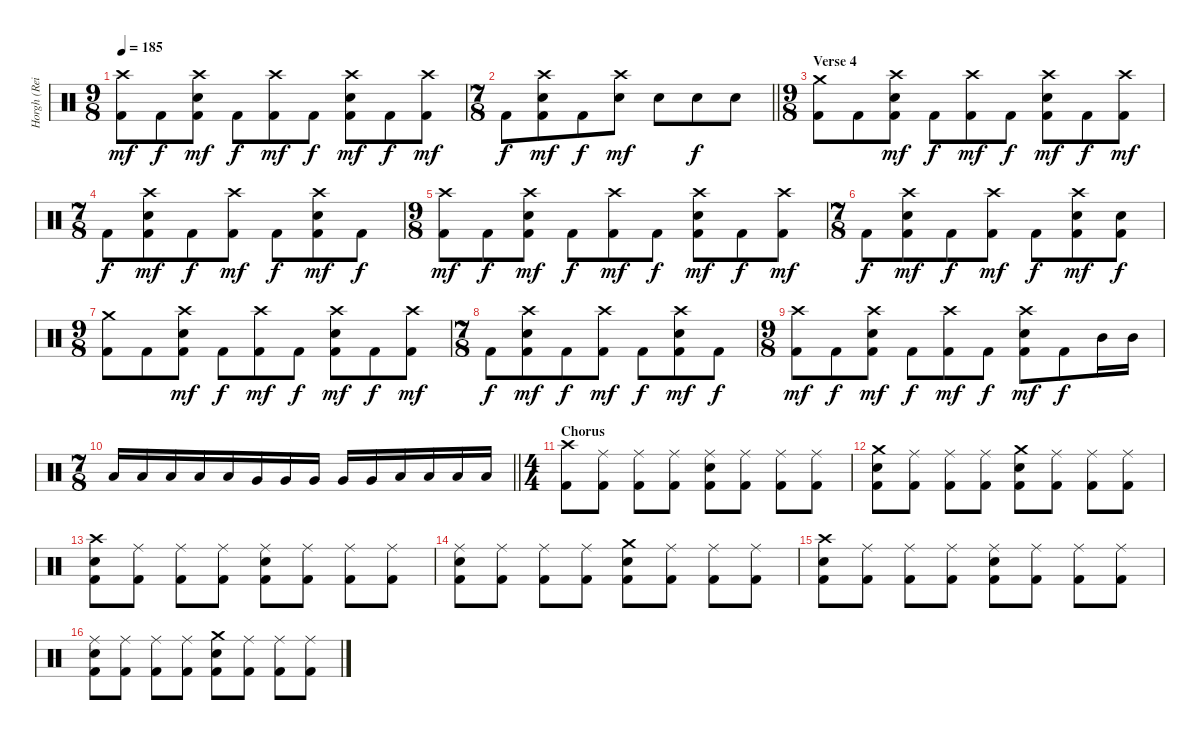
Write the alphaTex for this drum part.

\track ("Horgh (Reidar Horghagen)" "Horgh (Rei") {instrument percussion}
\staff {score}
\articulation defaults
\ts (9 8)
\tempo 185
\clef neutral
\ks c
("Crash high (hit)" "Kick (hit) 2").8{dy mf} "Kick (hit) 2".8{dy f} ("Crash high (hit)" "Snare (hit) 2" "Kick (hit) 2").8{dy mf} "Kick (hit) 2".8{dy f} ("Crash high (hit)" "Kick (hit) 2").8{dy mf} "Kick (hit) 2".8{dy f} ("Crash high (hit)" "Snare (hit) 2" "Kick (hit) 2").8{dy mf} "Kick (hit) 2".8{dy f} ("Crash high (hit)" "Kick (hit) 2").8{dy mf} |
\ts (7 8)
\barLineRight lightlight "Kick (hit) 2".8{dy f}
("Crash high (hit)" "Snare (hit) 2" "Kick (hit) 2").8{dy mf} "Kick (hit) 2".8{dy f} ("Crash high (hit)" "Snare (hit) 2").8{dy mf} "Snare (hit) 2".8 "Snare (hit) 2".8{dy f} "Snare (hit) 2".8 |
\ts (9 8)
\section ("" "Verse 4")
("Crash medium (hit)" "Kick (hit) 2").8 "Kick (hit) 2".8 ("Crash high (hit)" "Snare (hit) 2" "Kick (hit) 2").8{dy mf} "Kick (hit) 2".8{dy f} ("Crash high (hit)" "Kick (hit) 2").8{dy mf} "Kick (hit) 2".8{dy f} ("Crash high (hit)" "Snare (hit) 2" "Kick (hit) 2").8{dy mf} "Kick (hit) 2".8{dy f} ("Crash high (hit)" "Kick (hit) 2").8{dy mf} |
\ts (7 8)
"Kick (hit) 2".8{dy f} ("Crash high (hit)" "Snare (hit) 2" "Kick (hit) 2").8{dy mf} "Kick (hit) 2".8{dy f} ("Crash high (hit)" "Kick (hit) 2").8{dy mf} "Kick (hit) 2".8{dy f} ("Crash high (hit)" "Snare (hit) 2" "Kick (hit) 2").8{dy mf} "Kick (hit) 2".8{dy f} |
\ts (9 8)
("Crash high (hit)" "Kick (hit) 2").8{dy mf} "Kick (hit) 2".8{dy f} ("Crash high (hit)" "Snare (hit) 2" "Kick (hit) 2").8{dy mf} "Kick (hit) 2".8{dy f} ("Crash high (hit)" "Kick (hit) 2").8{dy mf} "Kick (hit) 2".8{dy f} ("Crash high (hit)" "Snare (hit) 2" "Kick (hit) 2").8{dy mf} "Kick (hit) 2".8{dy f} ("Crash high (hit)" "Kick (hit) 2").8{dy mf} |
\ts (7 8)
"Kick (hit) 2".8{dy f} ("Crash high (hit)" "Snare (hit) 2" "Kick (hit) 2").8{dy mf} "Kick (hit) 2".8{dy f} ("Crash high (hit)" "Kick (hit) 2").8{dy mf} "Kick (hit) 2".8{dy f} ("Crash high (hit)" "Snare (hit) 2" "Kick (hit) 2").8{dy mf} ("Snare (hit) 2" "Kick (hit) 2").8{dy f} |
\ts (9 8)
("Crash medium (hit)" "Kick (hit) 2").8 "Kick (hit) 2".8 ("Crash high (hit)" "Snare (hit) 2" "Kick (hit) 2").8{dy mf} "Kick (hit) 2".8{dy f} ("Crash high (hit)" "Kick (hit) 2").8{dy mf} "Kick (hit) 2".8{dy f} ("Crash high (hit)" "Snare (hit) 2" "Kick (hit) 2").8{dy mf} "Kick (hit) 2".8{dy f} ("Crash high (hit)" "Kick (hit) 2").8{dy mf} |
\ts (7 8)
"Kick (hit) 2".8{dy f} ("Crash high (hit)" "Snare (hit) 2" "Kick (hit) 2").8{dy mf} "Kick (hit) 2".8{dy f} ("Crash high (hit)" "Kick (hit) 2").8{dy mf} "Kick (hit) 2".8{dy f} ("Crash high (hit)" "Snare (hit) 2" "Kick (hit) 2").8{dy mf} "Kick (hit) 2".8{dy f} |
\ts (9 8)
("Crash high (hit)" "Kick (hit) 2").8{dy mf} "Kick (hit) 2".8{dy f} ("Crash high (hit)" "Snare (hit) 2" "Kick (hit) 2").8{dy mf} "Kick (hit) 2".8{dy f} ("Crash high (hit)" "Kick (hit) 2").8{dy mf} "Kick (hit) 2".8{dy f} ("Crash high (hit)" "Snare (hit) 2" "Kick (hit) 2").8{dy mf} "Kick (hit) 2".8{dy f} "Mid Tom (hit)".16 "Mid Tom (hit)".16 |
\ts (7 8)
\barLineRight lightlight "Low Tom (hit)".16 "Low Tom (hit)".16 "Low Tom (hit)".16 "Low Tom (hit)".16 "Low Tom (hit)".16 "Very Low Tom (hit)".16 "Very Low Tom (hit)".16 "Very Low Tom (hit)".16 "Very Low Tom (hit)".16 "Very Low Tom (hit)".16 "Low Floor Tom (hit)".16 "Low Floor Tom (hit)".16 "Low Floor Tom (hit)".16 "Low Floor Tom (hit)".16
|
\ts (4 4)
\section ("" "Chorus")
("Crash high (hit)" "Kick (hit) 2").8 ("Ride (middle)" "Kick (hit) 2").8 ("Ride (middle)" "Kick (hit) 2").8 ("Ride (middle)" "Kick (hit) 2").8 ("Ride (middle)" "Snare (hit) 2" "Kick (hit) 2").8 ("Ride (middle)" "Kick (hit) 2").8 ("Ride (middle)" "Kick (hit) 2").8 ("Ride (middle)" "Kick (hit) 2").8 |
("Crash medium (hit)" "Snare (hit) 2" "Kick (hit) 2").8 ("Ride (middle)" "Kick (hit) 2").8 ("Ride (middle)" "Kick (hit) 2").8 ("Ride (middle)" "Kick (hit) 2").8 ("Crash medium (hit)" "Snare (hit) 2" "Kick (hit) 2").8 ("Ride (middle)" "Kick (hit) 2").8 ("Ride (middle)" "Kick (hit) 2").8 ("Ride (middle)" "Kick (hit) 2").8 |
("Crash high (hit)" "Snare (hit) 2" "Kick (hit) 2").8 ("Ride (middle)" "Kick (hit) 2").8 ("Ride (middle)" "Kick (hit) 2").8 ("Ride (middle)" "Kick (hit) 2").8 ("Ride (middle)" "Snare (hit) 2" "Kick (hit) 2").8 ("Ride (middle)" "Kick (hit) 2").8 ("Ride (middle)" "Kick (hit) 2").8 ("Ride (middle)" "Kick (hit) 2").8 |
("Ride (middle)" "Snare (hit) 2" "Kick (hit) 2").8 ("Ride (middle)" "Kick (hit) 2").8 ("Ride (middle)" "Kick (hit) 2").8 ("Ride (middle)" "Kick (hit) 2").8 ("Crash medium (hit)" "Snare (hit) 2" "Kick (hit) 2").8 ("Ride (middle)" "Kick (hit) 2").8 ("Ride (middle)" "Kick (hit) 2").8 ("Ride (middle)" "Kick (hit) 2").8 |
("Crash high (hit)" "Snare (hit) 2" "Kick (hit) 2").8 ("Ride (middle)" "Kick (hit) 2").8 ("Ride (middle)" "Kick (hit) 2").8 ("Ride (middle)" "Kick (hit) 2").8 ("Ride (middle)" "Snare (hit) 2" "Kick (hit) 2").8 ("Ride (middle)" "Kick (hit) 2").8 ("Ride (middle)" "Kick (hit) 2").8 ("Ride (middle)" "Kick (hit) 2").8 |
("Ride (middle)" "Snare (hit) 2" "Kick (hit) 2").8 ("Ride (middle)" "Kick (hit) 2").8 ("Ride (middle)" "Kick (hit) 2").8 ("Ride (middle)" "Kick (hit) 2").8 ("Crash medium (hit)" "Snare (hit) 2" "Kick (hit) 2").8 ("Ride (middle)" "Kick (hit) 2").8 ("Ride (middle)" "Kick (hit) 2").8 ("Ride (middle)" "Kick (hit) 2").8
